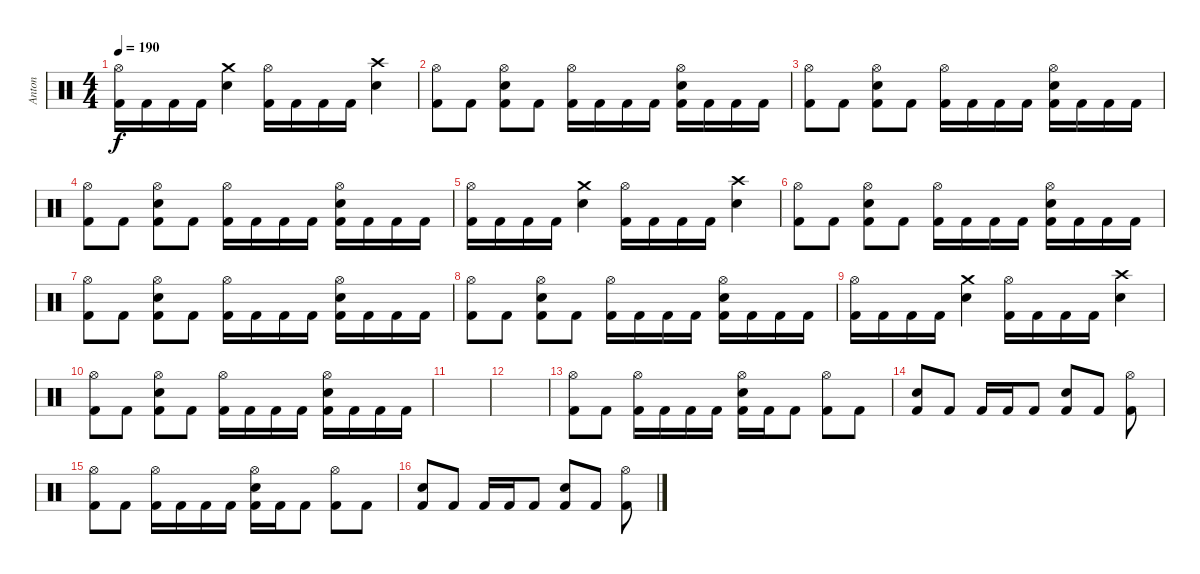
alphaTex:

\track ("Anton" "Anton") {instrument percussion}
\staff {score}
\articulation defaults
\ts (4 4)
\tempo 190
\clef neutral
\ks c
("Hi-Hat (open)" "Kick (hit) 2").16{dy f} "Kick (hit) 2".16 "Kick (hit) 2".16 "Kick (hit) 2".16 ("Crash medium (hit)" "Electric Snare (hit)").4 ("Hi-Hat (open)" "Kick (hit) 2").16 "Kick (hit) 2".16 "Kick (hit) 2".16 "Kick (hit) 2".16 ("Crash high (hit)" "Electric Snare (hit)").4 |
("Hi-Hat (open)" "Kick (hit) 2").8 "Kick (hit) 2".8 ("Hi-Hat (open)" "Electric Snare (hit)" "Kick (hit) 2").8 "Kick (hit) 2".8 ("Hi-Hat (open)" "Kick (hit) 2").16 "Kick (hit) 2".16 "Kick (hit) 2".16 "Kick (hit) 2".16 ("Hi-Hat (open)" "Electric Snare (hit)" "Kick (hit) 2").16 "Kick (hit) 2".16 "Kick (hit) 2".16 "Kick (hit) 2".16 |
("Hi-Hat (open)" "Kick (hit) 2").8 "Kick (hit) 2".8 ("Hi-Hat (open)" "Electric Snare (hit)" "Kick (hit) 2").8 "Kick (hit) 2".8 ("Hi-Hat (open)" "Kick (hit) 2").16 "Kick (hit) 2".16 "Kick (hit) 2".16 "Kick (hit) 2".16 ("Hi-Hat (open)" "Electric Snare (hit)" "Kick (hit) 2").16 "Kick (hit) 2".16 "Kick (hit) 2".16 "Kick (hit) 2".16 |
("Hi-Hat (open)" "Kick (hit) 2").8 "Kick (hit) 2".8 ("Hi-Hat (open)" "Electric Snare (hit)" "Kick (hit) 2").8 "Kick (hit) 2".8 ("Hi-Hat (open)" "Kick (hit) 2").16 "Kick (hit) 2".16 "Kick (hit) 2".16 "Kick (hit) 2".16 ("Hi-Hat (open)" "Electric Snare (hit)" "Kick (hit) 2").16 "Kick (hit) 2".16 "Kick (hit) 2".16 "Kick (hit) 2".16 |
("Hi-Hat (open)" "Kick (hit) 2").16 "Kick (hit) 2".16 "Kick (hit) 2".16 "Kick (hit) 2".16 ("Crash medium (hit)" "Electric Snare (hit)").4 ("Hi-Hat (open)" "Kick (hit) 2").16 "Kick (hit) 2".16 "Kick (hit) 2".16 "Kick (hit) 2".16 ("Crash high (hit)" "Electric Snare (hit)").4 |
("Hi-Hat (open)" "Kick (hit) 2").8 "Kick (hit) 2".8 ("Hi-Hat (open)" "Electric Snare (hit)" "Kick (hit) 2").8 "Kick (hit) 2".8 ("Hi-Hat (open)" "Kick (hit) 2").16 "Kick (hit) 2".16 "Kick (hit) 2".16 "Kick (hit) 2".16 ("Hi-Hat (open)" "Electric Snare (hit)" "Kick (hit) 2").16 "Kick (hit) 2".16 "Kick (hit) 2".16 "Kick (hit) 2".16 |
("Hi-Hat (open)" "Kick (hit) 2").8 "Kick (hit) 2".8 ("Hi-Hat (open)" "Electric Snare (hit)" "Kick (hit) 2").8 "Kick (hit) 2".8 ("Hi-Hat (open)" "Kick (hit) 2").16 "Kick (hit) 2".16 "Kick (hit) 2".16 "Kick (hit) 2".16 ("Hi-Hat (open)" "Electric Snare (hit)" "Kick (hit) 2").16 "Kick (hit) 2".16 "Kick (hit) 2".16 "Kick (hit) 2".16 |
("Hi-Hat (open)" "Kick (hit) 2").8 "Kick (hit) 2".8 ("Hi-Hat (open)" "Electric Snare (hit)" "Kick (hit) 2").8 "Kick (hit) 2".8 ("Hi-Hat (open)" "Kick (hit) 2").16 "Kick (hit) 2".16 "Kick (hit) 2".16 "Kick (hit) 2".16 ("Hi-Hat (open)" "Electric Snare (hit)" "Kick (hit) 2").16 "Kick (hit) 2".16 "Kick (hit) 2".16 "Kick (hit) 2".16 |
("Hi-Hat (open)" "Kick (hit) 2").16 "Kick (hit) 2".16 "Kick (hit) 2".16 "Kick (hit) 2".16 ("Crash medium (hit)" "Electric Snare (hit)").4 ("Hi-Hat (open)" "Kick (hit) 2").16 "Kick (hit) 2".16 "Kick (hit) 2".16 "Kick (hit) 2".16 ("Crash high (hit)" "Electric Snare (hit)").4 |
("Hi-Hat (open)" "Kick (hit) 2").8 "Kick (hit) 2".8 ("Hi-Hat (open)" "Electric Snare (hit)" "Kick (hit) 2").8 "Kick (hit) 2".8 ("Hi-Hat (open)" "Kick (hit) 2").16 "Kick (hit) 2".16 "Kick (hit) 2".16 "Kick (hit) 2".16 ("Hi-Hat (open)" "Electric Snare (hit)" "Kick (hit) 2").16 "Kick (hit) 2".16 "Kick (hit) 2".16 "Kick (hit) 2".16 |
|
|
("Kick (hit) 2" "Hi-Hat (open)").8 "Kick (hit) 2".8 ("Hi-Hat (open)" "Kick (hit) 2").16 "Kick (hit) 2".16 "Kick (hit) 2".16 "Kick (hit) 2".16 ("Hi-Hat (open)" "Electric Snare (hit)" "Kick (hit) 2").16 "Kick (hit) 2".16 "Kick (hit) 2".8 ("Hi-Hat (open)" "Kick (hit) 2").8 "Kick (hit) 2".8 |
("Kick (hit) 2" "Snare (hit) 2").8 "Kick (hit) 2".8 "Kick (hit) 2".16 "Kick (hit) 2".16 "Kick (hit) 2".8 ("Kick (hit) 2" "Snare (hit) 2").8 "Kick (hit) 2".8 ("Kick (hit) 2" "Hi-Hat (open)").8 |
("Kick (hit) 2" "Hi-Hat (open)").8 "Kick (hit) 2".8 ("Hi-Hat (open)" "Kick (hit) 2").16 "Kick (hit) 2".16 "Kick (hit) 2".16 "Kick (hit) 2".16 ("Hi-Hat (open)" "Electric Snare (hit)" "Kick (hit) 2").16 "Kick (hit) 2".16 "Kick (hit) 2".8 ("Hi-Hat (open)" "Kick (hit) 2").8 "Kick (hit) 2".8 |
("Kick (hit) 2" "Snare (hit) 2").8 "Kick (hit) 2".8 "Kick (hit) 2".16 "Kick (hit) 2".16 "Kick (hit) 2".8 ("Kick (hit) 2" "Snare (hit) 2").8 "Kick (hit) 2".8 ("Kick (hit) 2" "Hi-Hat (open)").8
